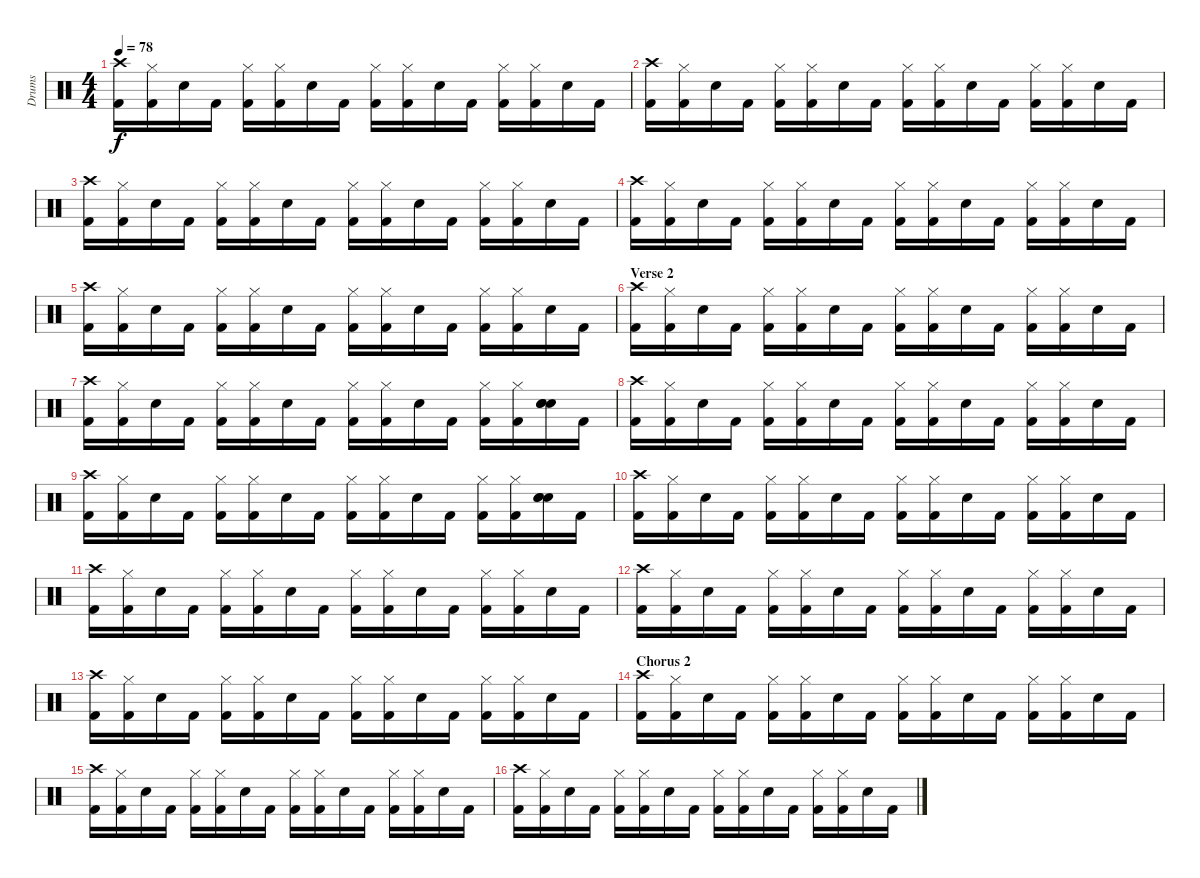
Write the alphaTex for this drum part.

\track ("Drums" "Drums") {instrument percussion}
\staff {score}
\articulation defaults
\ts (4 4)
\tempo 78
\clef neutral
\ks c
("Crash high (hit)" "Kick (hit) 2").16{dy f} ("Hi-Hat (closed)" "Kick (hit) 2").16 "Electric Snare (hit)".16 "Kick (hit) 2".16 ("Hi-Hat (closed)" "Kick (hit) 2").16 ("Hi-Hat (closed)" "Kick (hit) 2").16 "Electric Snare (hit)".16 "Kick (hit) 2".16 ("Hi-Hat (closed)" "Kick (hit) 2").16 ("Hi-Hat (closed)" "Kick (hit) 2").16 "Electric Snare (hit)".16 "Kick (hit) 2".16 ("Hi-Hat (closed)" "Kick (hit) 2").16 ("Hi-Hat (closed)" "Kick (hit) 2").16 "Electric Snare (hit)".16 "Kick (hit) 2".16 |
("Crash high (hit)" "Kick (hit) 2").16 ("Hi-Hat (closed)" "Kick (hit) 2").16 "Electric Snare (hit)".16 "Kick (hit) 2".16 ("Hi-Hat (closed)" "Kick (hit) 2").16 ("Hi-Hat (closed)" "Kick (hit) 2").16 "Electric Snare (hit)".16 "Kick (hit) 2".16 ("Hi-Hat (closed)" "Kick (hit) 2").16 ("Hi-Hat (closed)" "Kick (hit) 2").16 "Electric Snare (hit)".16 "Kick (hit) 2".16 ("Hi-Hat (closed)" "Kick (hit) 2").16 ("Hi-Hat (closed)" "Kick (hit) 2").16 "Electric Snare (hit)".16 "Kick (hit) 2".16 |
("Crash high (hit)" "Kick (hit) 2").16 ("Hi-Hat (closed)" "Kick (hit) 2").16 "Electric Snare (hit)".16 "Kick (hit) 2".16 ("Hi-Hat (closed)" "Kick (hit) 2").16 ("Hi-Hat (closed)" "Kick (hit) 2").16 "Electric Snare (hit)".16 "Kick (hit) 2".16 ("Hi-Hat (closed)" "Kick (hit) 2").16 ("Hi-Hat (closed)" "Kick (hit) 2").16 "Electric Snare (hit)".16 "Kick (hit) 2".16 ("Hi-Hat (closed)" "Kick (hit) 2").16 ("Hi-Hat (closed)" "Kick (hit) 2").16 "Electric Snare (hit)".16 "Kick (hit) 2".16 |
("Crash high (hit)" "Kick (hit) 2").16 ("Hi-Hat (closed)" "Kick (hit) 2").16 "Electric Snare (hit)".16 "Kick (hit) 2".16 ("Hi-Hat (closed)" "Kick (hit) 2").16 ("Hi-Hat (closed)" "Kick (hit) 2").16 "Electric Snare (hit)".16 "Kick (hit) 2".16 ("Hi-Hat (closed)" "Kick (hit) 2").16 ("Hi-Hat (closed)" "Kick (hit) 2").16 "Electric Snare (hit)".16 "Kick (hit) 2".16 ("Hi-Hat (closed)" "Kick (hit) 2").16 ("Hi-Hat (closed)" "Kick (hit) 2").16 "Electric Snare (hit)".16 "Kick (hit) 2".16 |
("Crash high (hit)" "Kick (hit) 2").16 ("Hi-Hat (closed)" "Kick (hit) 2").16 "Electric Snare (hit)".16 "Kick (hit) 2".16 ("Hi-Hat (closed)" "Kick (hit) 2").16 ("Hi-Hat (closed)" "Kick (hit) 2").16 "Electric Snare (hit)".16 "Kick (hit) 2".16 ("Hi-Hat (closed)" "Kick (hit) 2").16 ("Hi-Hat (closed)" "Kick (hit) 2").16 "Electric Snare (hit)".16 "Kick (hit) 2".16 ("Hi-Hat (closed)" "Kick (hit) 2").16 ("Hi-Hat (closed)" "Kick (hit) 2").16 "Electric Snare (hit)".16 "Kick (hit) 2".16 |
\section ("" "Verse 2")
("Crash high (hit)" "Kick (hit) 2").16 ("Hi-Hat (closed)" "Kick (hit) 2").16 "Electric Snare (hit)".16 "Kick (hit) 2".16 ("Hi-Hat (closed)" "Kick (hit) 2").16 ("Hi-Hat (closed)" "Kick (hit) 2").16 "Electric Snare (hit)".16 "Kick (hit) 2".16 ("Hi-Hat (closed)" "Kick (hit) 2").16 ("Hi-Hat (closed)" "Kick (hit) 2").16 "Electric Snare (hit)".16 "Kick (hit) 2".16 ("Hi-Hat (closed)" "Kick (hit) 2").16 ("Hi-Hat (closed)" "Kick (hit) 2").16 "Electric Snare (hit)".16 "Kick (hit) 2".16 |
("Crash high (hit)" "Kick (hit) 2").16 ("Hi-Hat (closed)" "Kick (hit) 2").16 "Electric Snare (hit)".16 "Kick (hit) 2".16 ("Hi-Hat (closed)" "Kick (hit) 2").16 ("Hi-Hat (closed)" "Kick (hit) 2").16 "Electric Snare (hit)".16 "Kick (hit) 2".16 ("Hi-Hat (closed)" "Kick (hit) 2").16 ("Hi-Hat (closed)" "Kick (hit) 2").16 "Electric Snare (hit)".16 "Kick (hit) 2".16 ("Hi-Hat (closed)" "Kick (hit) 2").16 ("Hi-Hat (closed)" "Kick (hit) 2").16 ("Hand Clap (hit)" "Electric Snare (hit)" "Hand Clap (hit)").16 "Kick (hit) 2".16 |
("Crash high (hit)" "Kick (hit) 2").16 ("Hi-Hat (closed)" "Kick (hit) 2").16 "Electric Snare (hit)".16 "Kick (hit) 2".16 ("Hi-Hat (closed)" "Kick (hit) 2").16 ("Hi-Hat (closed)" "Kick (hit) 2").16 "Electric Snare (hit)".16 "Kick (hit) 2".16 ("Hi-Hat (closed)" "Kick (hit) 2").16 ("Hi-Hat (closed)" "Kick (hit) 2").16 "Electric Snare (hit)".16 "Kick (hit) 2".16 ("Hi-Hat (closed)" "Kick (hit) 2").16 ("Hi-Hat (closed)" "Kick (hit) 2").16 "Electric Snare (hit)".16 "Kick (hit) 2".16 |
("Crash high (hit)" "Kick (hit) 2").16 ("Hi-Hat (closed)" "Kick (hit) 2").16 "Electric Snare (hit)".16 "Kick (hit) 2".16 ("Hi-Hat (closed)" "Kick (hit) 2").16 ("Hi-Hat (closed)" "Kick (hit) 2").16 "Electric Snare (hit)".16 "Kick (hit) 2".16 ("Hi-Hat (closed)" "Kick (hit) 2").16 ("Hi-Hat (closed)" "Kick (hit) 2").16 "Electric Snare (hit)".16 "Kick (hit) 2".16 ("Hi-Hat (closed)" "Kick (hit) 2").16 ("Hi-Hat (closed)" "Kick (hit) 2").16 ("Hand Clap (hit)" "Electric Snare (hit)" "Hand Clap (hit)").16 "Kick (hit) 2".16 |
("Crash high (hit)" "Kick (hit) 2").16 ("Hi-Hat (closed)" "Kick (hit) 2").16 "Electric Snare (hit)".16 "Kick (hit) 2".16 ("Hi-Hat (closed)" "Kick (hit) 2").16 ("Hi-Hat (closed)" "Kick (hit) 2").16 "Electric Snare (hit)".16 "Kick (hit) 2".16 ("Hi-Hat (closed)" "Kick (hit) 2").16 ("Hi-Hat (closed)" "Kick (hit) 2").16 "Electric Snare (hit)".16 "Kick (hit) 2".16 ("Hi-Hat (closed)" "Kick (hit) 2").16 ("Hi-Hat (closed)" "Kick (hit) 2").16 "Electric Snare (hit)".16 "Kick (hit) 2".16 |
("Crash high (hit)" "Kick (hit) 2").16 ("Hi-Hat (closed)" "Kick (hit) 2").16 "Electric Snare (hit)".16 "Kick (hit) 2".16 ("Hi-Hat (closed)" "Kick (hit) 2").16 ("Hi-Hat (closed)" "Kick (hit) 2").16 "Electric Snare (hit)".16 "Kick (hit) 2".16 ("Hi-Hat (closed)" "Kick (hit) 2").16 ("Hi-Hat (closed)" "Kick (hit) 2").16 "Electric Snare (hit)".16 "Kick (hit) 2".16 ("Hi-Hat (closed)" "Kick (hit) 2").16 ("Hi-Hat (closed)" "Kick (hit) 2").16 "Electric Snare (hit)".16 "Kick (hit) 2".16 |
("Crash high (hit)" "Kick (hit) 2").16 ("Hi-Hat (closed)" "Kick (hit) 2").16 "Electric Snare (hit)".16 "Kick (hit) 2".16 ("Hi-Hat (closed)" "Kick (hit) 2").16 ("Hi-Hat (closed)" "Kick (hit) 2").16 "Electric Snare (hit)".16 "Kick (hit) 2".16 ("Hi-Hat (closed)" "Kick (hit) 2").16 ("Hi-Hat (closed)" "Kick (hit) 2").16 "Electric Snare (hit)".16 "Kick (hit) 2".16 ("Hi-Hat (closed)" "Kick (hit) 2").16 ("Hi-Hat (closed)" "Kick (hit) 2").16 "Electric Snare (hit)".16 "Kick (hit) 2".16 |
("Crash high (hit)" "Kick (hit) 2").16 ("Hi-Hat (closed)" "Kick (hit) 2").16 "Electric Snare (hit)".16 "Kick (hit) 2".16 ("Hi-Hat (closed)" "Kick (hit) 2").16 ("Hi-Hat (closed)" "Kick (hit) 2").16 "Electric Snare (hit)".16 "Kick (hit) 2".16 ("Hi-Hat (closed)" "Kick (hit) 2").16 ("Hi-Hat (closed)" "Kick (hit) 2").16 "Electric Snare (hit)".16 "Kick (hit) 2".16 ("Hi-Hat (closed)" "Kick (hit) 2").16 ("Hi-Hat (closed)" "Kick (hit) 2").16 "Electric Snare (hit)".16 "Kick (hit) 2".16 |
\section ("" "Chorus 2")
("Crash high (hit)" "Kick (hit) 2").16 ("Hi-Hat (closed)" "Kick (hit) 2").16 "Electric Snare (hit)".16 "Kick (hit) 2".16 ("Hi-Hat (closed)" "Kick (hit) 2").16 ("Hi-Hat (closed)" "Kick (hit) 2").16 "Electric Snare (hit)".16 "Kick (hit) 2".16 ("Hi-Hat (closed)" "Kick (hit) 2").16 ("Hi-Hat (closed)" "Kick (hit) 2").16 "Electric Snare (hit)".16 "Kick (hit) 2".16 ("Hi-Hat (closed)" "Kick (hit) 2").16 ("Hi-Hat (closed)" "Kick (hit) 2").16 "Electric Snare (hit)".16 "Kick (hit) 2".16 |
("Crash high (hit)" "Kick (hit) 2").16 ("Hi-Hat (closed)" "Kick (hit) 2").16 "Electric Snare (hit)".16 "Kick (hit) 2".16 ("Hi-Hat (closed)" "Kick (hit) 2").16 ("Hi-Hat (closed)" "Kick (hit) 2").16 "Electric Snare (hit)".16 "Kick (hit) 2".16 ("Hi-Hat (closed)" "Kick (hit) 2").16 ("Hi-Hat (closed)" "Kick (hit) 2").16 "Electric Snare (hit)".16 "Kick (hit) 2".16 ("Hi-Hat (closed)" "Kick (hit) 2").16 ("Hi-Hat (closed)" "Kick (hit) 2").16 "Electric Snare (hit)".16 "Kick (hit) 2".16 |
("Crash high (hit)" "Kick (hit) 2").16 ("Hi-Hat (closed)" "Kick (hit) 2").16 "Electric Snare (hit)".16 "Kick (hit) 2".16 ("Hi-Hat (closed)" "Kick (hit) 2").16 ("Hi-Hat (closed)" "Kick (hit) 2").16 "Electric Snare (hit)".16 "Kick (hit) 2".16 ("Hi-Hat (closed)" "Kick (hit) 2").16 ("Hi-Hat (closed)" "Kick (hit) 2").16 "Electric Snare (hit)".16 "Kick (hit) 2".16 ("Hi-Hat (closed)" "Kick (hit) 2").16 ("Hi-Hat (closed)" "Kick (hit) 2").16 "Electric Snare (hit)".16 "Kick (hit) 2".16
